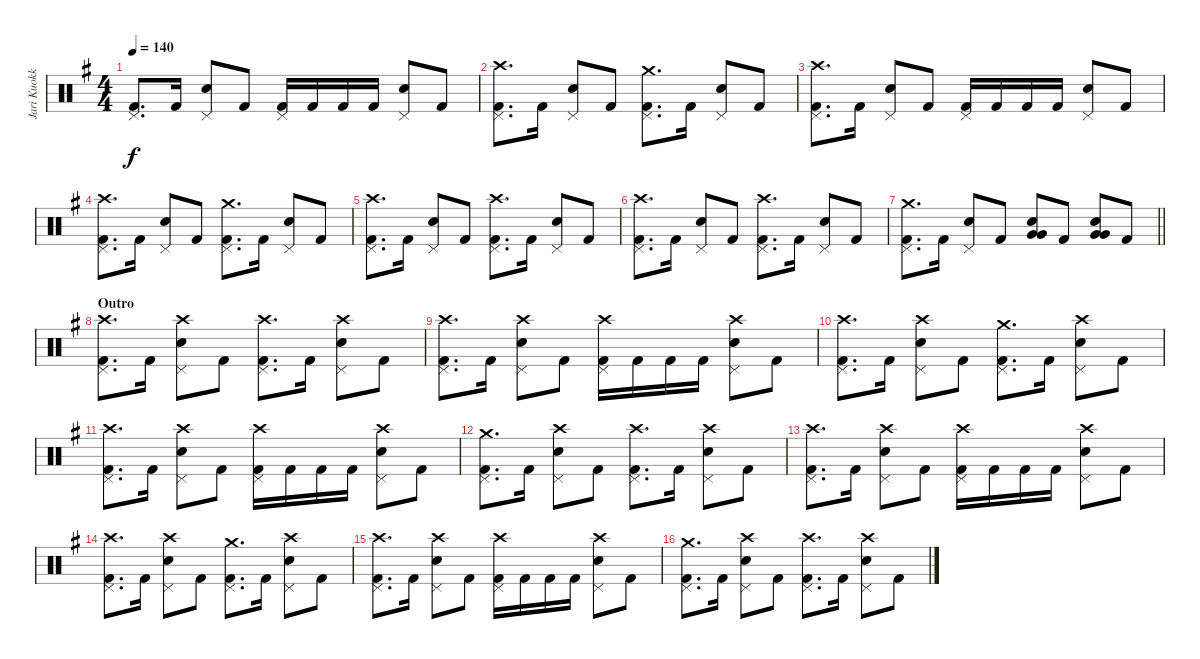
\track ("Jari Kuokkanen" "Jari Kuokk") {instrument percussion}
\staff {score}
\articulation defaults
\ts (4 4)
\tempo 140
\clef neutral
\ks eminor
("Pedal Hi-Hat (hit)" "Kick (hit) 2").8{d dy f} "Kick (hit) 2".16 ("Pedal Hi-Hat (hit)" "Snare (hit) 2").8 "Kick (hit) 2".8 ("Pedal Hi-Hat (hit)" "Kick (hit) 2").16 "Kick (hit) 2".16 "Kick (hit) 2".16 "Kick (hit) 2".16 ("Pedal Hi-Hat (hit)" "Snare (hit) 2").8 "Kick (hit) 2".8 |
("Crash high (hit)" "Pedal Hi-Hat (hit)" "Kick (hit) 2").8{d} "Kick (hit) 2".16 ("Pedal Hi-Hat (hit)" "Snare (hit) 2").8 "Kick (hit) 2".8 ("Crash medium (hit)" "Pedal Hi-Hat (hit)" "Kick (hit) 2").8{d} "Kick (hit) 2".16 ("Pedal Hi-Hat (hit)" "Snare (hit) 2").8 "Kick (hit) 2".8 |
("Crash high (hit)" "Pedal Hi-Hat (hit)" "Kick (hit) 2").8{d} "Kick (hit) 2".16 ("Pedal Hi-Hat (hit)" "Snare (hit) 2").8 "Kick (hit) 2".8 ("Pedal Hi-Hat (hit)" "Kick (hit) 2").16 "Kick (hit) 2".16 "Kick (hit) 2".16 "Kick (hit) 2".16 ("Pedal Hi-Hat (hit)" "Snare (hit) 2").8 "Kick (hit) 2".8 |
("Crash high (hit)" "Pedal Hi-Hat (hit)" "Kick (hit) 2").8{d} "Kick (hit) 2".16 ("Pedal Hi-Hat (hit)" "Snare (hit) 2").8 "Kick (hit) 2".8 ("Crash medium (hit)" "Pedal Hi-Hat (hit)" "Kick (hit) 2").8{d} "Kick (hit) 2".16 ("Pedal Hi-Hat (hit)" "Snare (hit) 2").8 "Kick (hit) 2".8 |
("Crash high (hit)" "Pedal Hi-Hat (hit)" "Kick (hit) 2").8{d} "Kick (hit) 2".16 ("Pedal Hi-Hat (hit)" "Snare (hit) 2").8 "Kick (hit) 2".8 ("Crash high (hit)" "Pedal Hi-Hat (hit)" "Kick (hit) 2").8{d} "Kick (hit) 2".16 ("Pedal Hi-Hat (hit)" "Snare (hit) 2").8 "Kick (hit) 2".8 |
("Crash high (hit)" "Pedal Hi-Hat (hit)" "Kick (hit) 2").8{d} "Kick (hit) 2".16 ("Pedal Hi-Hat (hit)" "Snare (hit) 2").8 "Kick (hit) 2".8 ("Crash high (hit)" "Pedal Hi-Hat (hit)" "Kick (hit) 2").8{d} "Kick (hit) 2".16 ("Pedal Hi-Hat (hit)" "Snare (hit) 2").8 "Kick (hit) 2".8 |
\barLineRight lightlight
("Crash medium (hit)" "Pedal Hi-Hat (hit)" "Kick (hit) 2").8{d} "Kick (hit) 2".16 ("Pedal Hi-Hat (hit)" "Snare (hit) 2").8 "Kick (hit) 2".8 ("Snare (hit) 2" "Very Low Tom (hit)" "Very Low Tom (hit)").8 "Kick (hit) 2".8 ("Snare (hit) 2" "Very Low Tom (hit)" "Very Low Tom (hit)").8 "Kick (hit) 2".8 |
\section ("" "Outro")
("Pedal Hi-Hat (hit)" "Crash high (hit)" "Kick (hit) 2").8{d} "Kick (hit) 2".16 ("Pedal Hi-Hat (hit)" "Crash high (hit)" "Snare (hit) 2").8 "Kick (hit) 2".8 ("Pedal Hi-Hat (hit)" "Crash high (hit)" "Kick (hit) 2").8{d} "Kick (hit) 2".16 ("Pedal Hi-Hat (hit)" "Crash high (hit)" "Snare (hit) 2").8 "Kick (hit) 2".8 |
("Pedal Hi-Hat (hit)" "Crash high (hit)" "Kick (hit) 2").8{d} "Kick (hit) 2".16 ("Pedal Hi-Hat (hit)" "Crash high (hit)" "Snare (hit) 2").8 "Kick (hit) 2".8 ("Pedal Hi-Hat (hit)" "Crash high (hit)" "Kick (hit) 2").16 "Kick (hit) 2".16 "Kick (hit) 2".16 "Kick (hit) 2".16 ("Pedal Hi-Hat (hit)" "Crash high (hit)" "Snare (hit) 2").8 "Kick (hit) 2".8 |
("Crash high (hit)" "Pedal Hi-Hat (hit)" "Kick (hit) 2").8{d} "Kick (hit) 2".16 ("Pedal Hi-Hat (hit)" "Crash high (hit)" "Snare (hit) 2").8 "Kick (hit) 2".8 ("Crash medium (hit)" "Pedal Hi-Hat (hit)" "Kick (hit) 2").8{d} "Kick (hit) 2".16 ("Pedal Hi-Hat (hit)" "Crash high (hit)" "Snare (hit) 2").8 "Kick (hit) 2".8 |
("Crash high (hit)" "Pedal Hi-Hat (hit)" "Kick (hit) 2").8{d} "Kick (hit) 2".16 ("Pedal Hi-Hat (hit)" "Crash high (hit)" "Snare (hit) 2").8 "Kick (hit) 2".8 ("Pedal Hi-Hat (hit)" "Crash high (hit)" "Kick (hit) 2").16 "Kick (hit) 2".16 "Kick (hit) 2".16 "Kick (hit) 2".16 ("Pedal Hi-Hat (hit)" "Crash high (hit)" "Snare (hit) 2").8 "Kick (hit) 2".8 |
("Pedal Hi-Hat (hit)" "Crash medium (hit)" "Kick (hit) 2").8{d} "Kick (hit) 2".16 ("Pedal Hi-Hat (hit)" "Crash high (hit)" "Snare (hit) 2").8 "Kick (hit) 2".8 ("Pedal Hi-Hat (hit)" "Crash high (hit)" "Kick (hit) 2").8{d} "Kick (hit) 2".16 ("Pedal Hi-Hat (hit)" "Crash high (hit)" "Snare (hit) 2").8 "Kick (hit) 2".8 |
("Pedal Hi-Hat (hit)" "Crash high (hit)" "Kick (hit) 2").8{d} "Kick (hit) 2".16 ("Pedal Hi-Hat (hit)" "Crash high (hit)" "Snare (hit) 2").8 "Kick (hit) 2".8 ("Pedal Hi-Hat (hit)" "Crash high (hit)" "Kick (hit) 2").16 "Kick (hit) 2".16 "Kick (hit) 2".16 "Kick (hit) 2".16 ("Pedal Hi-Hat (hit)" "Crash high (hit)" "Snare (hit) 2").8 "Kick (hit) 2".8 |
("Crash high (hit)" "Pedal Hi-Hat (hit)" "Kick (hit) 2").8{d} "Kick (hit) 2".16 ("Pedal Hi-Hat (hit)" "Crash high (hit)" "Snare (hit) 2").8 "Kick (hit) 2".8 ("Crash medium (hit)" "Pedal Hi-Hat (hit)" "Kick (hit) 2").8{d} "Kick (hit) 2".16 ("Pedal Hi-Hat (hit)" "Crash high (hit)" "Snare (hit) 2").8 "Kick (hit) 2".8 |
("Crash high (hit)" "Pedal Hi-Hat (hit)" "Kick (hit) 2").8{d} "Kick (hit) 2".16 ("Pedal Hi-Hat (hit)" "Crash high (hit)" "Snare (hit) 2").8 "Kick (hit) 2".8 ("Pedal Hi-Hat (hit)" "Crash high (hit)" "Kick (hit) 2").16 "Kick (hit) 2".16 "Kick (hit) 2".16 "Kick (hit) 2".16 ("Pedal Hi-Hat (hit)" "Crash high (hit)" "Snare (hit) 2").8 "Kick (hit) 2".8 |
("Pedal Hi-Hat (hit)" "Crash medium (hit)" "Kick (hit) 2").8{d} "Kick (hit) 2".16 ("Pedal Hi-Hat (hit)" "Crash high (hit)" "Snare (hit) 2").8 "Kick (hit) 2".8 ("Pedal Hi-Hat (hit)" "Crash high (hit)" "Kick (hit) 2").8{d} "Kick (hit) 2".16 ("Pedal Hi-Hat (hit)" "Crash high (hit)" "Snare (hit) 2").8 "Kick (hit) 2".8
